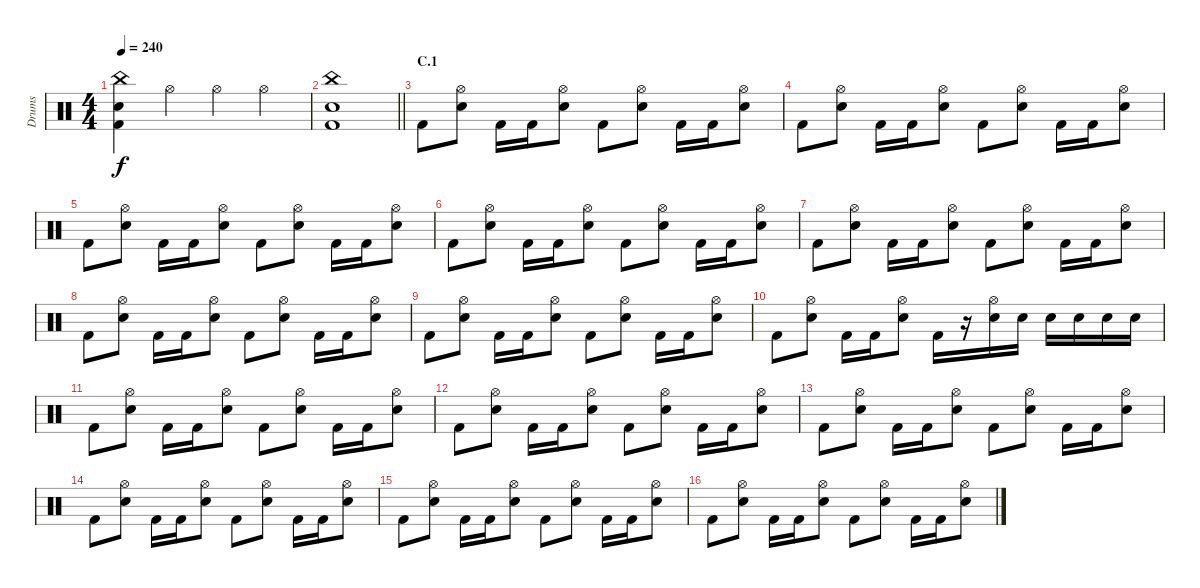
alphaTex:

\track ("Drums" "Drums") {instrument percussion}
\staff {score}
\articulation defaults
\ts (4 4)
\tempo 240
\clef neutral
\ks c
("China (hit)" "Electric Snare (hit)" "Kick (hit) 2").4{dy f} "Hi-Hat (open)".4 "Hi-Hat (open)".4 "Hi-Hat (open)".4 |
\barLineRight lightlight
("China (hit)" "Electric Snare (hit)" "Kick (hit) 2").1 |
\section ("" "C.1")
"Kick (hit) 2".8 ("Hi-Hat (open)" "Electric Snare (hit)").8 "Kick (hit) 2".16 "Kick (hit) 2".16 ("Hi-Hat (open)" "Electric Snare (hit)").8 "Kick (hit) 2".8 ("Hi-Hat (open)" "Electric Snare (hit)").8 "Kick (hit) 2".16 "Kick (hit) 2".16 ("Hi-Hat (open)" "Electric Snare (hit)").8 |
"Kick (hit) 2".8 ("Hi-Hat (open)" "Electric Snare (hit)").8 "Kick (hit) 2".16 "Kick (hit) 2".16 ("Hi-Hat (open)" "Electric Snare (hit)").8 "Kick (hit) 2".8 ("Hi-Hat (open)" "Electric Snare (hit)").8 "Kick (hit) 2".16 "Kick (hit) 2".16 ("Hi-Hat (open)" "Electric Snare (hit)").8 |
"Kick (hit) 2".8 ("Hi-Hat (open)" "Electric Snare (hit)").8 "Kick (hit) 2".16 "Kick (hit) 2".16 ("Hi-Hat (open)" "Electric Snare (hit)").8 "Kick (hit) 2".8 ("Hi-Hat (open)" "Electric Snare (hit)").8 "Kick (hit) 2".16 "Kick (hit) 2".16 ("Hi-Hat (open)" "Electric Snare (hit)").8 |
"Kick (hit) 2".8 ("Hi-Hat (open)" "Electric Snare (hit)").8 "Kick (hit) 2".16 "Kick (hit) 2".16 ("Hi-Hat (open)" "Electric Snare (hit)").8 "Kick (hit) 2".8 ("Hi-Hat (open)" "Electric Snare (hit)").8 "Kick (hit) 2".16 "Kick (hit) 2".16 ("Hi-Hat (open)" "Electric Snare (hit)").8 |
"Kick (hit) 2".8 ("Hi-Hat (open)" "Electric Snare (hit)").8 "Kick (hit) 2".16 "Kick (hit) 2".16 ("Hi-Hat (open)" "Electric Snare (hit)").8 "Kick (hit) 2".8 ("Hi-Hat (open)" "Electric Snare (hit)").8 "Kick (hit) 2".16 "Kick (hit) 2".16 ("Hi-Hat (open)" "Electric Snare (hit)").8 |
"Kick (hit) 2".8 ("Hi-Hat (open)" "Electric Snare (hit)").8 "Kick (hit) 2".16 "Kick (hit) 2".16 ("Hi-Hat (open)" "Electric Snare (hit)").8 "Kick (hit) 2".8 ("Hi-Hat (open)" "Electric Snare (hit)").8 "Kick (hit) 2".16 "Kick (hit) 2".16 ("Hi-Hat (open)" "Electric Snare (hit)").8 |
"Kick (hit) 2".8 ("Hi-Hat (open)" "Electric Snare (hit)").8 "Kick (hit) 2".16 "Kick (hit) 2".16 ("Hi-Hat (open)" "Electric Snare (hit)").8 "Kick (hit) 2".8 ("Hi-Hat (open)" "Electric Snare (hit)").8 "Kick (hit) 2".16 "Kick (hit) 2".16 ("Hi-Hat (open)" "Electric Snare (hit)").8 |
"Kick (hit) 2".8 ("Hi-Hat (open)" "Electric Snare (hit)").8 "Kick (hit) 2".16 "Kick (hit) 2".16 ("Hi-Hat (open)" "Electric Snare (hit)").8 "Kick (hit) 2".16 r.16 ("Hi-Hat (open)" "Electric Snare (hit)").16 "Electric Snare (hit)".16 "Electric Snare (hit)".16 "Electric Snare (hit)".16 "Electric Snare (hit)".16 "Electric Snare (hit)".16 |
"Kick (hit) 2".8 ("Hi-Hat (open)" "Electric Snare (hit)").8 "Kick (hit) 2".16 "Kick (hit) 2".16 ("Hi-Hat (open)" "Electric Snare (hit)").8 "Kick (hit) 2".8 ("Hi-Hat (open)" "Electric Snare (hit)").8 "Kick (hit) 2".16 "Kick (hit) 2".16 ("Hi-Hat (open)" "Electric Snare (hit)").8 |
"Kick (hit) 2".8 ("Hi-Hat (open)" "Electric Snare (hit)").8 "Kick (hit) 2".16 "Kick (hit) 2".16 ("Hi-Hat (open)" "Electric Snare (hit)").8 "Kick (hit) 2".8 ("Hi-Hat (open)" "Electric Snare (hit)").8 "Kick (hit) 2".16 "Kick (hit) 2".16 ("Hi-Hat (open)" "Electric Snare (hit)").8 |
"Kick (hit) 2".8 ("Hi-Hat (open)" "Electric Snare (hit)").8 "Kick (hit) 2".16 "Kick (hit) 2".16 ("Hi-Hat (open)" "Electric Snare (hit)").8 "Kick (hit) 2".8 ("Hi-Hat (open)" "Electric Snare (hit)").8 "Kick (hit) 2".16 "Kick (hit) 2".16 ("Hi-Hat (open)" "Electric Snare (hit)").8 |
"Kick (hit) 2".8 ("Hi-Hat (open)" "Electric Snare (hit)").8 "Kick (hit) 2".16 "Kick (hit) 2".16 ("Hi-Hat (open)" "Electric Snare (hit)").8 "Kick (hit) 2".8 ("Hi-Hat (open)" "Electric Snare (hit)").8 "Kick (hit) 2".16 "Kick (hit) 2".16 ("Hi-Hat (open)" "Electric Snare (hit)").8 |
"Kick (hit) 2".8 ("Hi-Hat (open)" "Electric Snare (hit)").8 "Kick (hit) 2".16 "Kick (hit) 2".16 ("Hi-Hat (open)" "Electric Snare (hit)").8 "Kick (hit) 2".8 ("Hi-Hat (open)" "Electric Snare (hit)").8 "Kick (hit) 2".16 "Kick (hit) 2".16 ("Hi-Hat (open)" "Electric Snare (hit)").8 |
"Kick (hit) 2".8 ("Hi-Hat (open)" "Electric Snare (hit)").8 "Kick (hit) 2".16 "Kick (hit) 2".16 ("Hi-Hat (open)" "Electric Snare (hit)").8 "Kick (hit) 2".8 ("Hi-Hat (open)" "Electric Snare (hit)").8 "Kick (hit) 2".16 "Kick (hit) 2".16 ("Hi-Hat (open)" "Electric Snare (hit)").8
